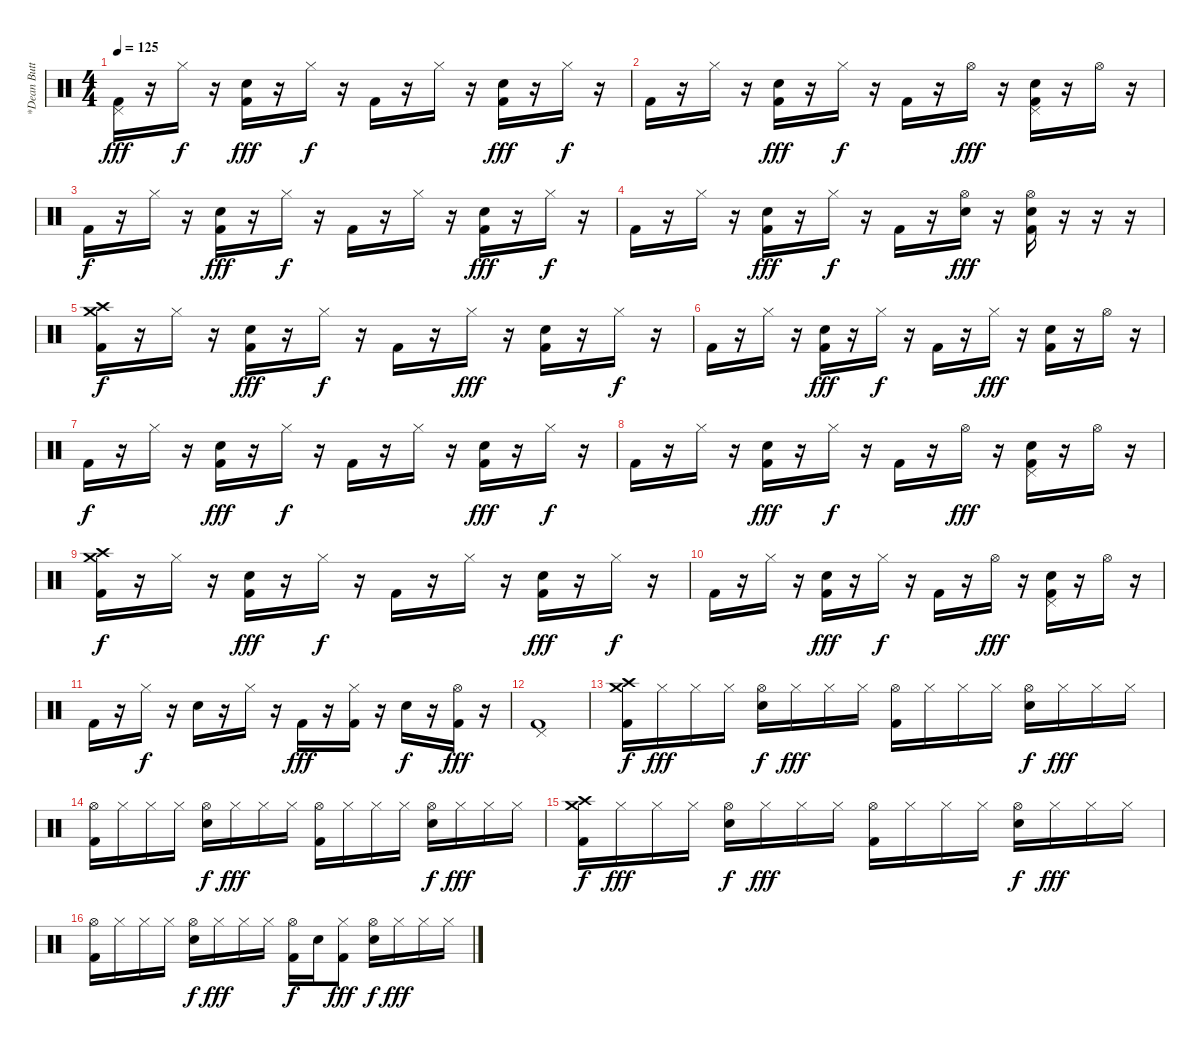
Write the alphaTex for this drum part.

\track ("*Dean Butterworth (Drum)" "*Dean Butt") {instrument percussion}
\staff {score}
\articulation defaults
\ts (4 4)
\tempo 125
\clef neutral
\ks c
("Pedal Hi-Hat (hit)" "Kick (hit) 2").16{dy fff} r.16 "Hi-Hat (closed)".16{dy f} r.16 ("Snare (hit) 2" "Kick (hit) 2").16{dy fff} r.16 "Hi-Hat (closed)".16{dy f} r.16 "Kick (hit) 2".16 r.16 "Hi-Hat (closed)".16 r.16 ("Snare (hit) 2" "Kick (hit) 2").16{dy fff} r.16 "Hi-Hat (closed)".16{dy f} r.16 |
"Kick (hit) 2".16 r.16 "Hi-Hat (closed)".16 r.16 ("Snare (hit) 2" "Kick (hit) 2").16{dy fff} r.16 "Hi-Hat (closed)".16{dy f} r.16 "Kick (hit) 2".16 r.16 "Hi-Hat (open)".16{dy fff} r.16 ("Pedal Hi-Hat (hit)" "Snare (hit) 2" "Kick (hit) 2").16 r.16 "Hi-Hat (open)".16 r.16 |
"Kick (hit) 2".16{dy f} r.16 "Hi-Hat (closed)".16 r.16 ("Snare (hit) 2" "Kick (hit) 2").16{dy fff} r.16 "Hi-Hat (closed)".16{dy f} r.16 "Kick (hit) 2".16 r.16 "Hi-Hat (closed)".16 r.16 ("Snare (hit) 2" "Kick (hit) 2").16{dy fff} r.16 "Hi-Hat (closed)".16{dy f} r.16 |
"Kick (hit) 2".16 r.16 "Hi-Hat (closed)".16 r.16 ("Snare (hit) 2" "Kick (hit) 2").16{dy fff} r.16 "Hi-Hat (closed)".16{dy f} r.16 "Kick (hit) 2".16 r.16 ("Hi-Hat (open)" "Snare (hit) 2").16{dy fff} r.16 ("Hi-Hat (open)" "Snare (hit) 2" "Kick (hit) 2").16 r.16 r.16 r.16 |
("Crash high (hit)" "Crash medium (hit)" "Kick (hit) 2").16{dy f} r.16 "Hi-Hat (closed)".16 r.16 ("Snare (hit) 2" "Kick (hit) 2").16{dy fff} r.16 "Hi-Hat (closed)".16{dy f} r.16 "Kick (hit) 2".16 r.16 "Hi-Hat (closed)".16{dy fff} r.16 ("Snare (hit) 2" "Kick (hit) 2").16 r.16 "Hi-Hat (closed)".16{dy f} r.16 |
"Kick (hit) 2".16 r.16 "Hi-Hat (closed)".16 r.16 ("Snare (hit) 2" "Kick (hit) 2").16{dy fff} r.16 "Hi-Hat (closed)".16{dy f} r.16 "Kick (hit) 2".16 r.16 "Hi-Hat (closed)".16{dy fff} r.16 ("Snare (hit) 2" "Kick (hit) 2").16 r.16 "Hi-Hat (open)".16 r.16 |
"Kick (hit) 2".16{dy f} r.16 "Hi-Hat (closed)".16 r.16 ("Snare (hit) 2" "Kick (hit) 2").16{dy fff} r.16 "Hi-Hat (closed)".16{dy f} r.16 "Kick (hit) 2".16 r.16 "Hi-Hat (closed)".16 r.16 ("Snare (hit) 2" "Kick (hit) 2").16{dy fff} r.16 "Hi-Hat (closed)".16{dy f} r.16 |
"Kick (hit) 2".16 r.16 "Hi-Hat (closed)".16 r.16 ("Snare (hit) 2" "Kick (hit) 2").16{dy fff} r.16 "Hi-Hat (closed)".16{dy f} r.16 "Kick (hit) 2".16 r.16 "Hi-Hat (open)".16{dy fff} r.16 ("Pedal Hi-Hat (hit)" "Snare (hit) 2" "Kick (hit) 2").16 r.16 "Hi-Hat (open)".16 r.16 |
("Crash medium (hit)" "Crash high (hit)" "Kick (hit) 2").16{dy f} r.16 "Hi-Hat (closed)".16 r.16 ("Snare (hit) 2" "Kick (hit) 2").16{dy fff} r.16 "Hi-Hat (closed)".16{dy f} r.16 "Kick (hit) 2".16 r.16 "Hi-Hat (closed)".16 r.16 ("Snare (hit) 2" "Kick (hit) 2").16{dy fff} r.16 "Hi-Hat (closed)".16{dy f} r.16 |
"Kick (hit) 2".16 r.16 "Hi-Hat (closed)".16 r.16 ("Snare (hit) 2" "Kick (hit) 2").16{dy fff} r.16 "Hi-Hat (closed)".16{dy f} r.16 "Kick (hit) 2".16 r.16 "Hi-Hat (open)".16{dy fff} r.16 ("Pedal Hi-Hat (hit)" "Snare (hit) 2" "Kick (hit) 2").16 r.16 "Hi-Hat (open)".16 r.16 |
"Kick (hit) 2".16 r.16 "Hi-Hat (closed)".16{dy f} r.16 "Snare (hit) 2".16 r.16 "Hi-Hat (closed)".16 r.16 "Kick (hit) 2".16{dy fff} r.16 ("Hi-Hat (closed)" "Kick (hit) 2").16 r.16 "Snare (hit) 2".16{dy f} r.16 ("Hi-Hat (open)" "Kick (hit) 2").16{dy fff} r.16 |
("Pedal Hi-Hat (hit)" "Kick (hit) 2").1 |
("Crash high (hit)" "Crash medium (hit)" "Kick (hit) 2").16{dy f} "Hi-Hat (closed)".16{dy fff} "Hi-Hat (closed)".16 "Hi-Hat (closed)".16 ("Hi-Hat (open)" "Electric Snare (hit)").16{dy f} "Hi-Hat (closed)".16{dy fff} "Hi-Hat (closed)".16 "Hi-Hat (closed)".16 ("Hi-Hat (open)" "Kick (hit) 2").16 "Hi-Hat (closed)".16 "Hi-Hat (closed)".16 "Hi-Hat (closed)".16 ("Hi-Hat (open)" "Electric Snare (hit)").16{dy f} "Hi-Hat (closed)".16{dy fff} "Hi-Hat (closed)".16 "Hi-Hat (closed)".16 |
("Hi-Hat (open)" "Kick (hit) 2").16 "Hi-Hat (closed)".16 "Hi-Hat (closed)".16 "Hi-Hat (closed)".16 ("Hi-Hat (open)" "Electric Snare (hit)").16{dy f} "Hi-Hat (closed)".16{dy fff} "Hi-Hat (closed)".16 "Hi-Hat (closed)".16 ("Hi-Hat (open)" "Kick (hit) 2").16 "Hi-Hat (closed)".16 "Hi-Hat (closed)".16 "Hi-Hat (closed)".16 ("Hi-Hat (open)" "Electric Snare (hit)").16{dy f} "Hi-Hat (closed)".16{dy fff} "Hi-Hat (closed)".16 "Hi-Hat (closed)".16 |
("Crash high (hit)" "Crash medium (hit)" "Kick (hit) 2").16{dy f} "Hi-Hat (closed)".16{dy fff} "Hi-Hat (closed)".16 "Hi-Hat (closed)".16 ("Hi-Hat (open)" "Electric Snare (hit)").16{dy f} "Hi-Hat (closed)".16{dy fff} "Hi-Hat (closed)".16 "Hi-Hat (closed)".16 ("Hi-Hat (open)" "Kick (hit) 2").16 "Hi-Hat (closed)".16 "Hi-Hat (closed)".16 "Hi-Hat (closed)".16 ("Hi-Hat (open)" "Electric Snare (hit)").16{dy f} "Hi-Hat (closed)".16{dy fff} "Hi-Hat (closed)".16 "Hi-Hat (closed)".16 |
("Hi-Hat (open)" "Kick (hit) 2").16 "Hi-Hat (closed)".16 "Hi-Hat (closed)".16 "Hi-Hat (closed)".16 ("Hi-Hat (open)" "Electric Snare (hit)").16{dy f} "Hi-Hat (closed)".16{dy fff} "Hi-Hat (closed)".16 "Hi-Hat (closed)".16 ("Hi-Hat (open)" "Kick (hit) 2").16{dy f} "Electric Snare (hit)".16 ("Hi-Hat (closed)" "Kick (hit) 2").8{dy fff} ("Hi-Hat (open)" "Electric Snare (hit)").16{dy f} "Hi-Hat (closed)".16{dy fff} "Hi-Hat (closed)".16 "Hi-Hat (closed)".16
